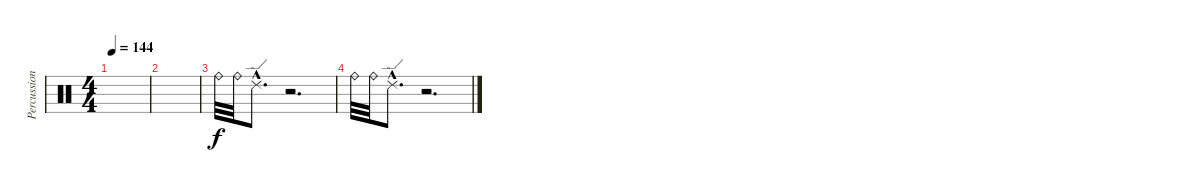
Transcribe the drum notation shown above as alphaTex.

\track ("Percussion" "Percussion") {instrument percussion}
\staff {score}
\articulation defaults
\ts (4 4)
\tempo 144
\clef neutral
\ks c
|
|
"Ride (bell)".32{dy f volume 10} "Ride (bell)".32 "Ride (edge) 2"{hac}.8{d} r.2{d} |
"Ride (bell)".32{volume 10} "Ride (bell)".32 "Ride (edge) 2"{hac}.8{d} r.2{d}
